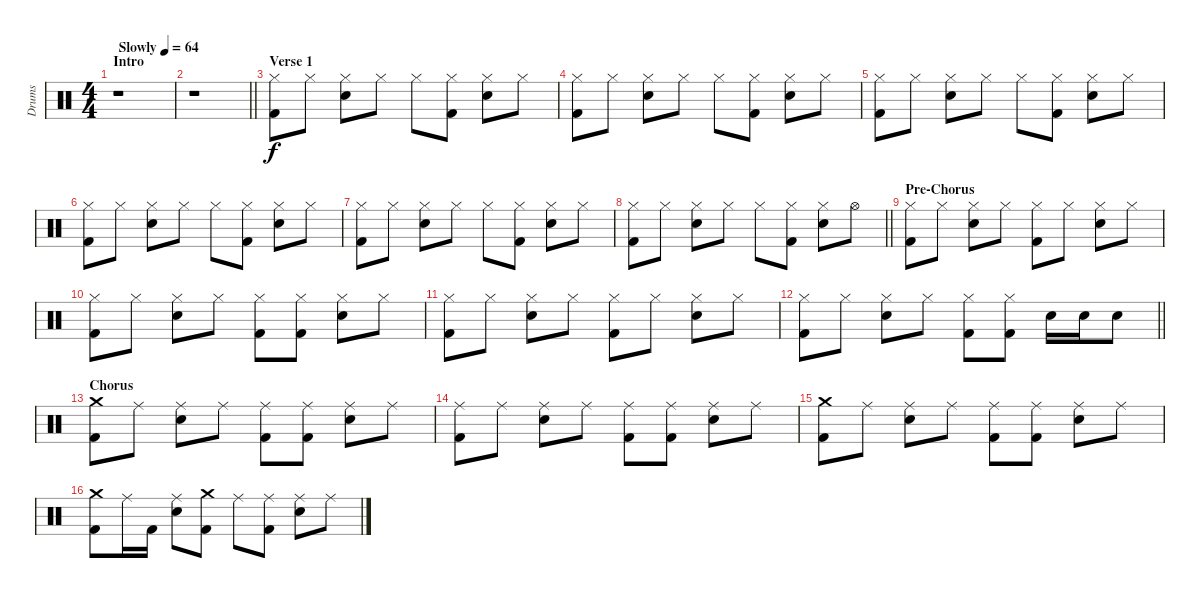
\track ("Drums" "Drums") {instrument percussion}
\staff {score}
\articulation defaults
\ts (4 4)
\section ("" "Intro")
\tempo (64 "Slowly")
\clef neutral
\ks c
r.1{dy f} |
\barLineRight lightlight
r.1 |
\section ("" "Verse 1")
("Hi-Hat (closed)" "Kick (hit) 2").8 "Hi-Hat (closed)".8 ("Hi-Hat (closed)" "Snare (hit) 2").8 "Hi-Hat (closed)".8 "Hi-Hat (closed)".8 ("Hi-Hat (closed)" "Kick (hit) 2").8 ("Hi-Hat (closed)" "Snare (hit) 2").8 "Hi-Hat (closed)".8 |
("Hi-Hat (closed)" "Kick (hit) 2").8 "Hi-Hat (closed)".8 ("Hi-Hat (closed)" "Snare (hit) 2").8 "Hi-Hat (closed)".8 "Hi-Hat (closed)".8 ("Hi-Hat (closed)" "Kick (hit) 2").8 ("Hi-Hat (closed)" "Snare (hit) 2").8 "Hi-Hat (closed)".8 |
("Hi-Hat (closed)" "Kick (hit) 2").8 "Hi-Hat (closed)".8 ("Hi-Hat (closed)" "Snare (hit) 2").8 "Hi-Hat (closed)".8 "Hi-Hat (closed)".8 ("Hi-Hat (closed)" "Kick (hit) 2").8 ("Hi-Hat (closed)" "Snare (hit) 2").8 "Hi-Hat (closed)".8 |
("Hi-Hat (closed)" "Kick (hit) 2").8 "Hi-Hat (closed)".8 ("Hi-Hat (closed)" "Snare (hit) 2").8 "Hi-Hat (closed)".8 "Hi-Hat (closed)".8 ("Hi-Hat (closed)" "Kick (hit) 2").8 ("Hi-Hat (closed)" "Snare (hit) 2").8 "Hi-Hat (closed)".8 |
("Hi-Hat (closed)" "Kick (hit) 2").8 "Hi-Hat (closed)".8 ("Hi-Hat (closed)" "Snare (hit) 2").8 "Hi-Hat (closed)".8 "Hi-Hat (closed)".8 ("Hi-Hat (closed)" "Kick (hit) 2").8 ("Hi-Hat (closed)" "Snare (hit) 2").8 "Hi-Hat (closed)".8 |
\barLineRight lightlight
("Hi-Hat (closed)" "Kick (hit) 2").8 "Hi-Hat (closed)".8 ("Hi-Hat (closed)" "Snare (hit) 2").8 "Hi-Hat (closed)".8 "Hi-Hat (closed)".8 ("Hi-Hat (closed)" "Kick (hit) 2").8 ("Hi-Hat (closed)" "Snare (hit) 2").8 "Hi-Hat (open)".8 |
\section ("" "Pre-Chorus")
("Hi-Hat (closed)" "Kick (hit) 2").8 "Hi-Hat (closed)".8 ("Hi-Hat (closed)" "Snare (hit) 2").8 "Hi-Hat (closed)".8 ("Hi-Hat (closed)" "Kick (hit) 2").8 "Hi-Hat (closed)".8 ("Hi-Hat (closed)" "Snare (hit) 2").8 "Hi-Hat (closed)".8 |
("Hi-Hat (closed)" "Kick (hit) 2").8 "Hi-Hat (closed)".8 ("Hi-Hat (closed)" "Snare (hit) 2").8 "Hi-Hat (closed)".8 ("Hi-Hat (closed)" "Kick (hit) 2").8 ("Hi-Hat (closed)" "Kick (hit) 2").8 ("Hi-Hat (closed)" "Snare (hit) 2").8 "Hi-Hat (closed)".8 |
("Hi-Hat (closed)" "Kick (hit) 2").8 "Hi-Hat (closed)".8 ("Hi-Hat (closed)" "Snare (hit) 2").8 "Hi-Hat (closed)".8 ("Hi-Hat (closed)" "Kick (hit) 2").8 "Hi-Hat (closed)".8 ("Hi-Hat (closed)" "Snare (hit) 2").8 "Hi-Hat (closed)".8 |
\barLineRight lightlight
("Hi-Hat (closed)" "Kick (hit) 2").8 "Hi-Hat (closed)".8 ("Hi-Hat (closed)" "Snare (hit) 2").8 "Hi-Hat (closed)".8 ("Hi-Hat (closed)" "Kick (hit) 2").8 ("Hi-Hat (closed)" "Kick (hit) 2").8 "Snare (hit) 2".16 "Snare (hit) 2".16 "Snare (hit) 2".8 |
\section ("" "Chorus")
("Crash medium (hit)" "Kick (hit) 2").8 "Ride (middle)".8 ("Ride (middle)" "Snare (hit) 2").8 "Ride (middle)".8 ("Ride (middle)" "Kick (hit) 2").8 ("Ride (middle)" "Kick (hit) 2").8 ("Ride (middle)" "Snare (hit) 2").8 "Ride (middle)".8 |
("Ride (middle)" "Kick (hit) 2").8 "Ride (middle)".8 ("Ride (middle)" "Snare (hit) 2").8 "Ride (middle)".8 ("Ride (middle)" "Kick (hit) 2").8 ("Ride (middle)" "Kick (hit) 2").8 ("Ride (middle)" "Snare (hit) 2").8 "Ride (middle)".8 |
("Crash medium (hit)" "Kick (hit) 2").8 "Ride (middle)".8 ("Ride (middle)" "Snare (hit) 2").8 "Ride (middle)".8 ("Ride (middle)" "Kick (hit) 2").8 ("Ride (middle)" "Kick (hit) 2").8 ("Ride (middle)" "Snare (hit) 2").8 "Ride (middle)".8 |
("Crash medium (hit)" "Kick (hit) 2").8 "Ride (middle)".16 "Kick (hit) 2".16 ("Ride (middle)" "Snare (hit) 2").8 ("Crash medium (hit)" "Kick (hit) 2").8 "Ride (middle)".8 ("Ride (middle)" "Kick (hit) 2").8 ("Ride (middle)" "Snare (hit) 2").8 "Ride (middle)".8
